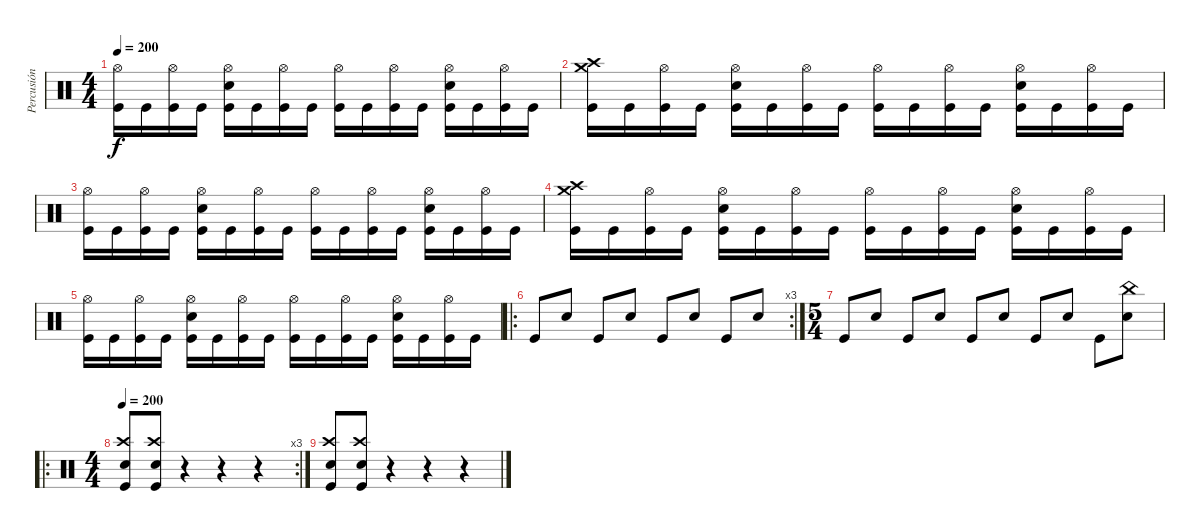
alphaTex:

\track ("Percusión" "Percusión") {instrument percussion}
\staff {score}
\articulation defaults
\ts (4 4)
\tempo 200
\clef neutral
\ks c
("Hi-Hat (open)" "Kick (hit)").16{dy f} "Kick (hit)".16 ("Hi-Hat (open)" "Kick (hit)").16 "Kick (hit)".16 ("Hi-Hat (open)" "Electric Snare (hit)" "Kick (hit)").16 "Kick (hit)".16 ("Hi-Hat (open)" "Kick (hit)").16 "Kick (hit)".16 ("Hi-Hat (open)" "Kick (hit)").16 "Kick (hit)".16 ("Hi-Hat (open)" "Kick (hit)").16 "Kick (hit)".16 ("Hi-Hat (open)" "Electric Snare (hit)" "Kick (hit)").16 "Kick (hit)".16 ("Hi-Hat (open)" "Kick (hit)").16 "Kick (hit)".16 |
("Crash high (hit)" "Crash medium (hit)" "Kick (hit)").16 "Kick (hit)".16 ("Hi-Hat (open)" "Kick (hit)").16 "Kick (hit)".16 ("Hi-Hat (open)" "Electric Snare (hit)" "Kick (hit)").16 "Kick (hit)".16 ("Hi-Hat (open)" "Kick (hit)").16 "Kick (hit)".16 ("Hi-Hat (open)" "Kick (hit)").16 "Kick (hit)".16 ("Hi-Hat (open)" "Kick (hit)").16 "Kick (hit)".16 ("Hi-Hat (open)" "Electric Snare (hit)" "Kick (hit)").16 "Kick (hit)".16 ("Hi-Hat (open)" "Kick (hit)").16 "Kick (hit)".16 |
("Hi-Hat (open)" "Kick (hit)").16 "Kick (hit)".16 ("Hi-Hat (open)" "Kick (hit)").16 "Kick (hit)".16 ("Hi-Hat (open)" "Electric Snare (hit)" "Kick (hit)").16 "Kick (hit)".16 ("Hi-Hat (open)" "Kick (hit)").16 "Kick (hit)".16 ("Hi-Hat (open)" "Kick (hit)").16 "Kick (hit)".16 ("Hi-Hat (open)" "Kick (hit)").16 "Kick (hit)".16 ("Hi-Hat (open)" "Electric Snare (hit)" "Kick (hit)").16 "Kick (hit)".16 ("Hi-Hat (open)" "Kick (hit)").16 "Kick (hit)".16 |
("Crash high (hit)" "Crash medium (hit)" "Kick (hit)").16 "Kick (hit)".16 ("Hi-Hat (open)" "Kick (hit)").16 "Kick (hit)".16 ("Hi-Hat (open)" "Electric Snare (hit)" "Kick (hit)").16 "Kick (hit)".16 ("Hi-Hat (open)" "Kick (hit)").16 "Kick (hit)".16 ("Hi-Hat (open)" "Kick (hit)").16 "Kick (hit)".16 ("Hi-Hat (open)" "Kick (hit)").16 "Kick (hit)".16 ("Hi-Hat (open)" "Electric Snare (hit)" "Kick (hit)").16 "Kick (hit)".16 ("Hi-Hat (open)" "Kick (hit)").16 "Kick (hit)".16 |
("Hi-Hat (open)" "Kick (hit)").16 "Kick (hit)".16 ("Hi-Hat (open)" "Kick (hit)").16 "Kick (hit)".16 ("Hi-Hat (open)" "Electric Snare (hit)" "Kick (hit)").16 "Kick (hit)".16 ("Hi-Hat (open)" "Kick (hit)").16 "Kick (hit)".16 ("Hi-Hat (open)" "Kick (hit)").16 "Kick (hit)".16 ("Hi-Hat (open)" "Kick (hit)").16 "Kick (hit)".16 ("Hi-Hat (open)" "Electric Snare (hit)" "Kick (hit)").16 "Kick (hit)".16 ("Hi-Hat (open)" "Kick (hit)").16 "Kick (hit)".16 |
\ro
\rc 3 "Kick (hit)".8 "Snare (hit) 2".8 "Kick (hit)".8 "Snare (hit) 2".8 "Kick (hit)".8 "Snare (hit) 2".8 "Kick (hit)".8 "Snare (hit) 2".8
|
\ts (5 4)
"Kick (hit)".8 "Snare (hit) 2".8 "Kick (hit)".8 "Snare (hit) 2".8 "Kick (hit)".8 "Snare (hit) 2".8 "Kick (hit)".8 "Snare (hit) 2".8 "Kick (hit)".8 ("China (hit)" "Snare (hit) 2").8 |
\ro
\rc 3
\ts (4 4)
\tempo 200
("Crash high (hit)" "Snare (hit) 2" "Kick (hit)").8 ("Crash high (hit)" "Snare (hit) 2" "Kick (hit)").8 r.4 r.4 r.4 |
("Crash high (hit)" "Snare (hit) 2" "Kick (hit)").8 ("Crash high (hit)" "Snare (hit) 2" "Kick (hit)").8 r.4 r.4 r.4
